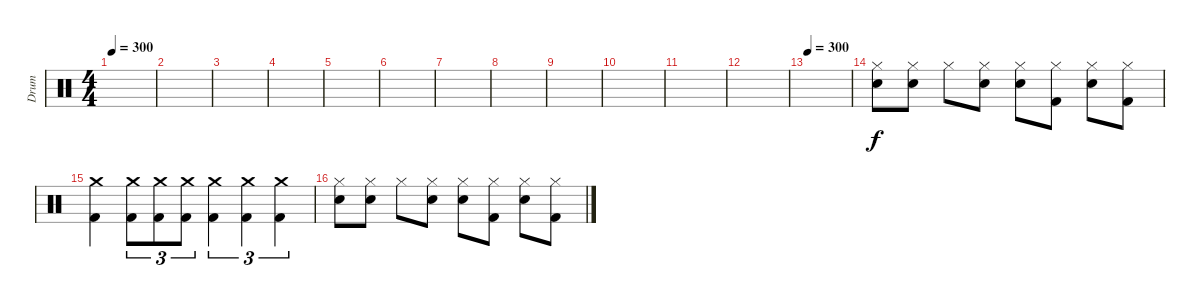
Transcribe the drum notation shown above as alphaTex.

\track ("Drum" "Drum") {instrument percussion}
\staff {score}
\articulation defaults
\ts (4 4)
\tempo 300
\clef neutral
\ks c
|
|
|
|
|
|
|
|
|
|
|
|
\tempo 300
|
("Hi-Hat (closed)" "Snare (hit) 2").8 ("Hi-Hat (closed)" "Snare (hit) 2").8 "Hi-Hat (closed)".8 ("Hi-Hat (closed)" "Snare (hit) 2").8 ("Hi-Hat (closed)" "Snare (hit) 2").8 ("Hi-Hat (closed)" "Kick (hit) 2").8 ("Hi-Hat (closed)" "Snare (hit) 2").8 ("Hi-Hat (closed)" "Kick (hit) 2").8 |
("Crash medium (hit)" "Kick (hit) 2").4 ("Crash medium (hit)" "Kick (hit) 2").8{tu (3 2)} ("Crash medium (hit)" "Kick (hit) 2").8{tu (3 2)} ("Crash medium (hit)" "Kick (hit) 2").8{tu (3 2)} ("Crash medium (hit)" "Kick (hit) 2").4{tu (3 2)} ("Crash medium (hit)" "Kick (hit) 2").4{tu (3 2)} ("Crash medium (hit)" "Kick (hit) 2").4{tu (3 2)} |
("Hi-Hat (closed)" "Snare (hit) 2").8 ("Hi-Hat (closed)" "Snare (hit) 2").8 "Hi-Hat (closed)".8 ("Hi-Hat (closed)" "Snare (hit) 2").8 ("Hi-Hat (closed)" "Snare (hit) 2").8 ("Hi-Hat (closed)" "Kick (hit) 2").8 ("Hi-Hat (closed)" "Snare (hit) 2").8 ("Hi-Hat (closed)" "Kick (hit) 2").8
